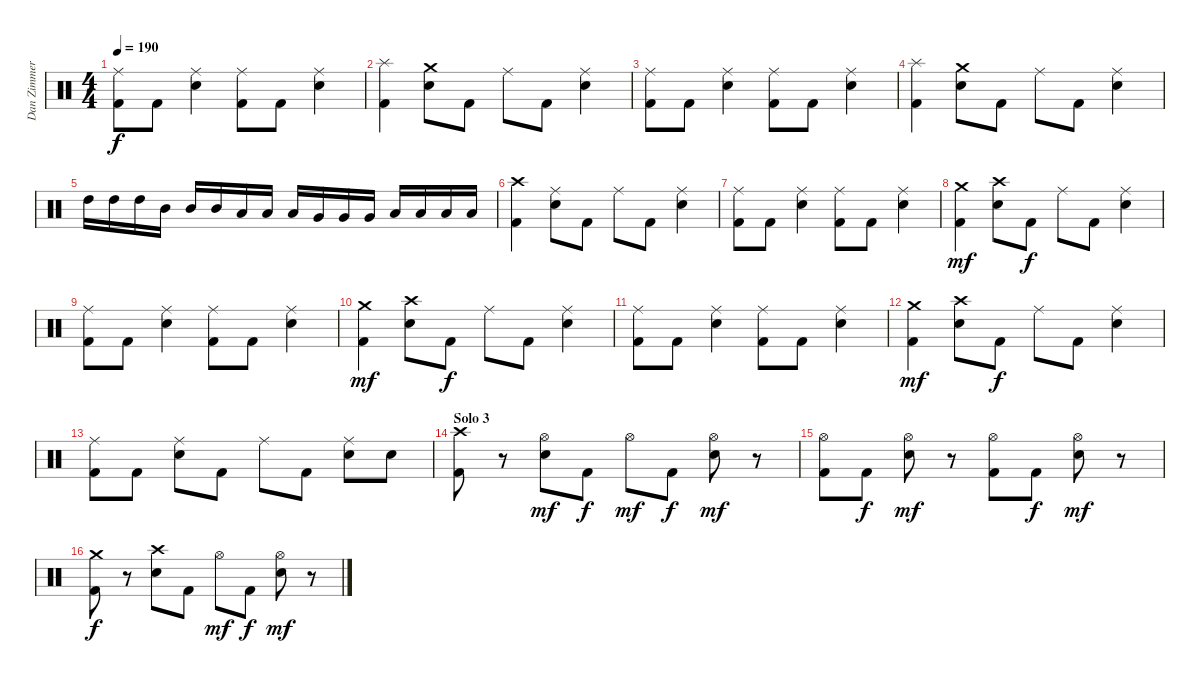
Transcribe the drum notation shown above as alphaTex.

\track ("Dan Zimmermann" "Dan Zimmer") {instrument percussion}
\staff {score}
\articulation defaults
\ts (4 4)
\tempo 190
\clef neutral
\ks c
("Ride (middle)" "Kick (hit) 2").8{dy f} "Kick (hit) 2".8 ("Ride (middle)" "Electric Snare (hit)").4 ("Ride (middle)" "Kick (hit) 2").8 "Kick (hit) 2".8 ("Ride (middle)" "Electric Snare (hit)").4 |
("Splash (hit)" "Kick (hit) 2").4 ("Crash medium (hit)" "Electric Snare (hit)").8 "Kick (hit) 2".8 "Ride (middle)".8 "Kick (hit) 2".8 ("Ride (middle)" "Electric Snare (hit)").4 |
("Ride (middle)" "Kick (hit) 2").8 "Kick (hit) 2".8 ("Ride (middle)" "Electric Snare (hit)").4 ("Ride (middle)" "Kick (hit) 2").8 "Kick (hit) 2".8 ("Ride (middle)" "Electric Snare (hit)").4 |
("Splash (hit)" "Kick (hit) 2").4 ("Crash medium (hit)" "Electric Snare (hit)").8 "Kick (hit) 2".8 "Ride (middle)".8 "Kick (hit) 2".8 ("Ride (middle)" "Electric Snare (hit)").4 |
"High Tom (hit)".16 "High Tom (hit)".16 "High Tom (hit)".16 "Mid Tom (hit)".16 "Mid Tom (hit)".16 "Mid Tom (hit)".16 "Low Tom (hit)".16 "Low Tom (hit)".16 "Low Tom (hit)".16 "Very Low Tom (hit)".16 "Very Low Tom (hit)".16 "Very Low Tom (hit)".16 "Low Floor Tom (hit)".16 "Low Floor Tom (hit)".16 "Low Floor Tom (hit)".16 "Low Floor Tom (hit)".16 |
("Crash high (hit)" "Kick (hit) 2").4 ("Ride (middle)" "Electric Snare (hit)").8 "Kick (hit) 2".8 "Ride (middle)".8 "Kick (hit) 2".8 ("Ride (middle)" "Electric Snare (hit)").4 |
("Ride (middle)" "Kick (hit) 2").8 "Kick (hit) 2".8 ("Ride (middle)" "Electric Snare (hit)").4 ("Ride (middle)" "Kick (hit) 2").8 "Kick (hit) 2".8 ("Ride (middle)" "Electric Snare (hit)").4 |
("Crash medium (hit)" "Kick (hit) 2").4{dy mf} ("Crash high (hit)" "Electric Snare (hit)").8 "Kick (hit) 2".8{dy f} "Ride (middle)".8 "Kick (hit) 2".8 ("Ride (middle)" "Electric Snare (hit)").4 |
("Ride (middle)" "Kick (hit) 2").8 "Kick (hit) 2".8 ("Ride (middle)" "Electric Snare (hit)").4 ("Ride (middle)" "Kick (hit) 2").8 "Kick (hit) 2".8 ("Ride (middle)" "Electric Snare (hit)").4 |
("Crash medium (hit)" "Kick (hit) 2").4{dy mf} ("Crash high (hit)" "Electric Snare (hit)").8 "Kick (hit) 2".8{dy f} "Ride (middle)".8 "Kick (hit) 2".8 ("Ride (middle)" "Electric Snare (hit)").4 |
("Ride (middle)" "Kick (hit) 2").8 "Kick (hit) 2".8 ("Ride (middle)" "Electric Snare (hit)").4 ("Ride (middle)" "Kick (hit) 2").8 "Kick (hit) 2".8 ("Ride (middle)" "Electric Snare (hit)").4 |
("Crash medium (hit)" "Kick (hit) 2").4{dy mf} ("Crash high (hit)" "Electric Snare (hit)").8 "Kick (hit) 2".8{dy f} "Ride (middle)".8 "Kick (hit) 2".8 ("Ride (middle)" "Electric Snare (hit)").4 |
("Ride (middle)" "Kick (hit) 2").8 "Kick (hit) 2".8 ("Ride (middle)" "Electric Snare (hit)").8 "Kick (hit) 2".8 "Ride (middle)".8 "Kick (hit) 2".8 ("Ride (middle)" "Electric Snare (hit)").8 "Electric Snare (hit)".8 |
\section ("" "Solo 3")
("Crash high (hit)" "Kick (hit) 2").8 r.8 ("Hi-Hat (open)" "Electric Snare (hit)").8{dy mf} "Kick (hit) 2".8{dy f} "Hi-Hat (open)".8{dy mf} "Kick (hit) 2".8{dy f} ("Hi-Hat (open)" "Electric Snare (hit)").8{dy mf} r.8 |
("Hi-Hat (open)" "Kick (hit) 2").8 "Kick (hit) 2".8{dy f} ("Hi-Hat (open)" "Electric Snare (hit)").8{dy mf} r.8 ("Hi-Hat (open)" "Kick (hit) 2").8 "Kick (hit) 2".8{dy f} ("Hi-Hat (open)" "Electric Snare (hit)").8{dy mf} r.8 |
("Crash medium (hit)" "Kick (hit) 2").8{dy f} r.8 ("Crash high (hit)" "Electric Snare (hit)").8 "Kick (hit) 2".8 "Hi-Hat (open)".8{dy mf} "Kick (hit) 2".8{dy f} ("Hi-Hat (open)" "Electric Snare (hit)").8{dy mf} r.8
